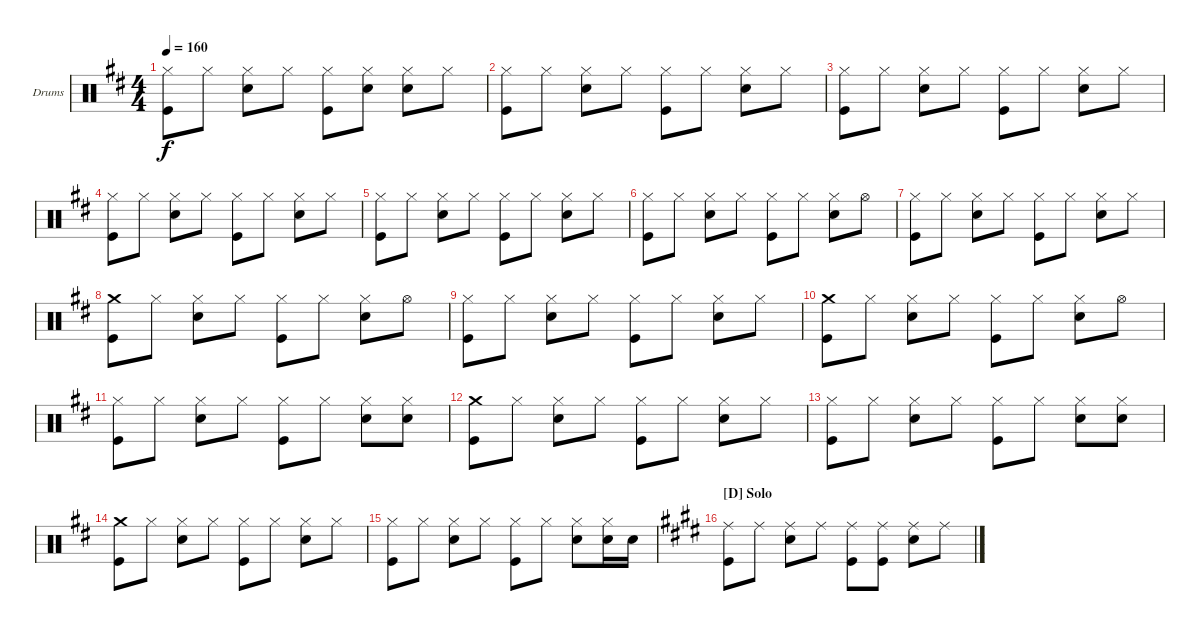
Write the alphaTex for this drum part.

\defaultSystemsLayout 4
\bracketExtendMode groupsimilarinstruments
\firstSystemTrackNameOrientation horizontal
\otherSystemsTrackNameOrientation horizontal
\track ("Drumkit" "Drums") {instrument percussion}
\staff {score}
\articulation defaults
\ts (4 4)
\tempo 160
\clef neutral
\scale
0.333333
\ks d
("Kick (hit)" "Hi-Hat (closed)").8{dy f} "Hi-Hat (closed)".8 ("Hi-Hat (closed)" "Snare (hit) 2").8 "Hi-Hat (closed)".8 ("Hi-Hat (closed)" "Kick (hit)").8 ("Snare (hit) 2" "Hi-Hat (closed)").8 ("Snare (hit) 2" "Hi-Hat (closed)").8 "Hi-Hat (closed)".8 |
\scale
0.333333 ("Kick (hit)" "Hi-Hat (closed)").8 "Hi-Hat (closed)".8 ("Snare (hit) 2" "Hi-Hat (closed)").8 "Hi-Hat (closed)".8 ("Kick (hit)" "Hi-Hat (closed)").8 "Hi-Hat (closed)".8 ("Snare (hit) 2" "Hi-Hat (closed)").8 "Hi-Hat (closed)".8 |
\scale
0.333333 ("Kick (hit)" "Hi-Hat (closed)").8 "Hi-Hat (closed)".8 ("Snare (hit) 2" "Hi-Hat (closed)").8 "Hi-Hat (closed)".8 ("Kick (hit)" "Hi-Hat (closed)").8 "Hi-Hat (closed)".8 ("Snare (hit) 2" "Hi-Hat (closed)").8 "Hi-Hat (closed)".8 |
\scale
0.333333 ("Kick (hit)" "Hi-Hat (closed)").8 "Hi-Hat (closed)".8 ("Snare (hit) 2" "Hi-Hat (closed)").8 "Hi-Hat (closed)".8 ("Kick (hit)" "Hi-Hat (closed)").8 "Hi-Hat (closed)".8 ("Snare (hit) 2" "Hi-Hat (closed)").8 "Hi-Hat (closed)".8 |
\scale
0.333333 ("Kick (hit)" "Hi-Hat (closed)").8 "Hi-Hat (closed)".8 ("Snare (hit) 2" "Hi-Hat (closed)").8 "Hi-Hat (closed)".8 ("Kick (hit)" "Hi-Hat (closed)").8 "Hi-Hat (closed)".8 ("Snare (hit) 2" "Hi-Hat (closed)").8 "Hi-Hat (closed)".8 |
\scale
0.333333 ("Kick (hit)" "Hi-Hat (closed)").8 "Hi-Hat (closed)".8 ("Snare (hit) 2" "Hi-Hat (closed)").8 "Hi-Hat (closed)".8 ("Kick (hit)" "Hi-Hat (closed)").8 "Hi-Hat (closed)".8 ("Snare (hit) 2" "Hi-Hat (closed)").8 "Hi-Hat (open)".8 |
\scale
0.333333 ("Kick (hit)" "Hi-Hat (closed)").8 "Hi-Hat (closed)".8 ("Snare (hit) 2" "Hi-Hat (closed)").8 "Hi-Hat (closed)".8 ("Kick (hit)" "Hi-Hat (closed)").8 "Hi-Hat (closed)".8 ("Snare (hit) 2" "Hi-Hat (closed)").8 "Hi-Hat (closed)".8 |
\scale
0.333333 ("Crash medium (hit)" "Kick (hit)").8 "Hi-Hat (closed)".8 ("Snare (hit) 2" "Hi-Hat (closed)").8 "Hi-Hat (closed)".8 ("Kick (hit)" "Hi-Hat (closed)").8 "Hi-Hat (closed)".8 ("Snare (hit) 2" "Hi-Hat (closed)").8 "Hi-Hat (open)".8 |
\scale
0.333333 ("Kick (hit)" "Hi-Hat (closed)").8 "Hi-Hat (closed)".8 ("Snare (hit) 2" "Hi-Hat (closed)").8 "Hi-Hat (closed)".8 ("Kick (hit)" "Hi-Hat (closed)").8 "Hi-Hat (closed)".8 ("Snare (hit) 2" "Hi-Hat (closed)").8 "Hi-Hat (closed)".8 |
\scale
0.333333 ("Crash medium (hit)" "Kick (hit)").8 "Hi-Hat (closed)".8 ("Snare (hit) 2" "Hi-Hat (closed)").8 "Hi-Hat (closed)".8 ("Kick (hit)" "Hi-Hat (closed)").8 "Hi-Hat (closed)".8 ("Snare (hit) 2" "Hi-Hat (closed)").8 "Hi-Hat (open)".8 |
\scale
0.333333 ("Kick (hit)" "Hi-Hat (closed)").8 "Hi-Hat (closed)".8 ("Snare (hit) 2" "Hi-Hat (closed)").8 "Hi-Hat (closed)".8 ("Kick (hit)" "Hi-Hat (closed)").8 "Hi-Hat (closed)".8 ("Snare (hit) 2" "Hi-Hat (closed)").8 ("Snare (hit) 2" "Hi-Hat (closed)").8 |
\scale
0.333333 ("Crash medium (hit)" "Kick (hit)").8 "Hi-Hat (closed)".8 ("Snare (hit) 2" "Hi-Hat (closed)").8 "Hi-Hat (closed)".8 ("Kick (hit)" "Hi-Hat (closed)").8 "Hi-Hat (closed)".8 ("Snare (hit) 2" "Hi-Hat (closed)").8 "Hi-Hat (closed)".8 |
\scale
0.333333 ("Kick (hit)" "Hi-Hat (closed)").8 "Hi-Hat (closed)".8 ("Snare (hit) 2" "Hi-Hat (closed)").8 "Hi-Hat (closed)".8 ("Kick (hit)" "Hi-Hat (closed)").8 "Hi-Hat (closed)".8 ("Snare (hit) 2" "Hi-Hat (closed)").8 ("Snare (hit) 2" "Hi-Hat (closed)").8 |
\scale
0.254545 ("Crash medium (hit)" "Kick (hit)").8 "Hi-Hat (closed)".8 ("Snare (hit) 2" "Hi-Hat (closed)").8 "Hi-Hat (closed)".8 ("Kick (hit)" "Hi-Hat (closed)").8 "Hi-Hat (closed)".8 ("Snare (hit) 2" "Hi-Hat (closed)").8 "Hi-Hat (closed)".8 |
\scale
0.254545 ("Kick (hit)" "Hi-Hat (closed)").8 "Hi-Hat (closed)".8 ("Snare (hit) 2" "Hi-Hat (closed)").8 "Hi-Hat (closed)".8 ("Kick (hit)" "Hi-Hat (closed)").8 "Hi-Hat (closed)".8 ("Snare (hit) 2" "Hi-Hat (closed)").8 ("Snare (hit) 2" "Hi-Hat (closed)").16 "Snare (hit) 2".16 |
\section ("D" "Solo")
\scale
0.490909
\ks e
("Ride (middle)" "Kick (hit)").8 "Ride (middle)".8 ("Ride (middle)" "Snare (hit) 2").8 "Ride (middle)".8 ("Ride (middle)" "Kick (hit)").8 ("Ride (middle)" "Kick (hit)").8 ("Ride (middle)" "Snare (hit) 2").8 "Ride (middle)".8
